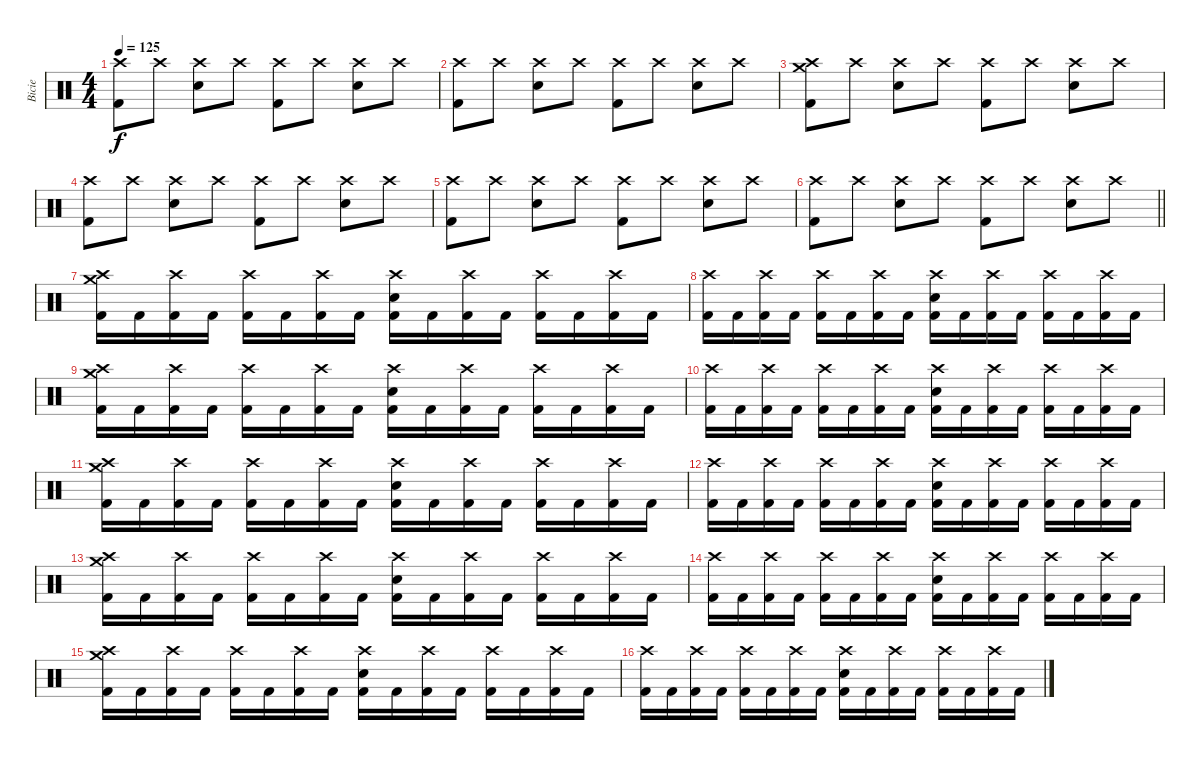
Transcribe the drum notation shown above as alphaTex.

\track ("Bicie" "Bicie") {instrument percussion}
\staff {score}
\articulation defaults
\ts (4 4)
\tempo 125
\clef neutral
\ks c
("Crash high (hit)" "Kick (hit) 2").8{dy f} "Crash high (hit)".8 ("Crash high (hit)" "Snare (hit) 2").8 "Crash high (hit)".8 ("Crash high (hit)" "Kick (hit) 2").8 "Crash high (hit)".8 ("Crash high (hit)" "Snare (hit) 2").8 "Crash high (hit)".8 |
("Crash high (hit)" "Kick (hit) 2").8 "Crash high (hit)".8 ("Crash high (hit)" "Snare (hit) 2").8 "Crash high (hit)".8 ("Crash high (hit)" "Kick (hit) 2").8 "Crash high (hit)".8 ("Crash high (hit)" "Snare (hit) 2").8 "Crash high (hit)".8 |
("Crash medium (hit)" "Crash high (hit)" "Kick (hit) 2").8 "Crash high (hit)".8 ("Crash high (hit)" "Snare (hit) 2").8 "Crash high (hit)".8 ("Crash high (hit)" "Kick (hit) 2").8 "Crash high (hit)".8 ("Crash high (hit)" "Snare (hit) 2").8 "Crash high (hit)".8 |
("Crash high (hit)" "Kick (hit) 2").8 "Crash high (hit)".8 ("Crash high (hit)" "Snare (hit) 2").8 "Crash high (hit)".8 ("Crash high (hit)" "Kick (hit) 2").8 "Crash high (hit)".8 ("Crash high (hit)" "Snare (hit) 2").8 "Crash high (hit)".8 |
("Crash high (hit)" "Kick (hit) 2").8 "Crash high (hit)".8 ("Crash high (hit)" "Snare (hit) 2").8 "Crash high (hit)".8 ("Crash high (hit)" "Kick (hit) 2").8 "Crash high (hit)".8 ("Crash high (hit)" "Snare (hit) 2").8 "Crash high (hit)".8 |
\barLineRight lightlight
("Crash high (hit)" "Kick (hit) 2").8 "Crash high (hit)".8 ("Crash high (hit)" "Snare (hit) 2").8 "Crash high (hit)".8 ("Crash high (hit)" "Kick (hit) 2").8 "Crash high (hit)".8 ("Crash high (hit)" "Snare (hit) 2").8 "Crash high (hit)".8 |
("Crash high (hit)" "Crash medium (hit)" "Kick (hit) 2").16 "Kick (hit) 2".16 ("Crash high (hit)" "Kick (hit) 2").16 "Kick (hit) 2".16 ("Crash high (hit)" "Kick (hit) 2").16 "Kick (hit) 2".16 ("Crash high (hit)" "Kick (hit) 2").16 "Kick (hit) 2".16 ("Crash high (hit)" "Snare (hit) 2" "Kick (hit) 2").16 "Kick (hit) 2".16 ("Crash high (hit)" "Kick (hit) 2").16 "Kick (hit) 2".16 ("Crash high (hit)" "Kick (hit) 2").16 "Kick (hit) 2".16 ("Crash high (hit)" "Kick (hit) 2").16 "Kick (hit) 2".16 |
("Crash high (hit)" "Kick (hit) 2").16 "Kick (hit) 2".16 ("Crash high (hit)" "Kick (hit) 2").16 "Kick (hit) 2".16 ("Crash high (hit)" "Kick (hit) 2").16 "Kick (hit) 2".16 ("Crash high (hit)" "Kick (hit) 2").16 "Kick (hit) 2".16 ("Crash high (hit)" "Snare (hit) 2" "Kick (hit) 2").16 "Kick (hit) 2".16 ("Crash high (hit)" "Kick (hit) 2").16 "Kick (hit) 2".16 ("Crash high (hit)" "Kick (hit) 2").16 "Kick (hit) 2".16 ("Crash high (hit)" "Kick (hit) 2").16 "Kick (hit) 2".16 |
("Crash high (hit)" "Crash medium (hit)" "Kick (hit) 2").16 "Kick (hit) 2".16 ("Crash high (hit)" "Kick (hit) 2").16 "Kick (hit) 2".16 ("Crash high (hit)" "Kick (hit) 2").16 "Kick (hit) 2".16 ("Crash high (hit)" "Kick (hit) 2").16 "Kick (hit) 2".16 ("Crash high (hit)" "Snare (hit) 2" "Kick (hit) 2").16 "Kick (hit) 2".16 ("Crash high (hit)" "Kick (hit) 2").16 "Kick (hit) 2".16 ("Crash high (hit)" "Kick (hit) 2").16 "Kick (hit) 2".16 ("Crash high (hit)" "Kick (hit) 2").16 "Kick (hit) 2".16 |
("Crash high (hit)" "Kick (hit) 2").16 "Kick (hit) 2".16 ("Crash high (hit)" "Kick (hit) 2").16 "Kick (hit) 2".16 ("Crash high (hit)" "Kick (hit) 2").16 "Kick (hit) 2".16 ("Crash high (hit)" "Kick (hit) 2").16 "Kick (hit) 2".16 ("Crash high (hit)" "Snare (hit) 2" "Kick (hit) 2").16 "Kick (hit) 2".16 ("Crash high (hit)" "Kick (hit) 2").16 "Kick (hit) 2".16 ("Crash high (hit)" "Kick (hit) 2").16 "Kick (hit) 2".16 ("Crash high (hit)" "Kick (hit) 2").16 "Kick (hit) 2".16 |
("Crash high (hit)" "Crash medium (hit)" "Kick (hit) 2").16 "Kick (hit) 2".16 ("Crash high (hit)" "Kick (hit) 2").16 "Kick (hit) 2".16 ("Crash high (hit)" "Kick (hit) 2").16 "Kick (hit) 2".16 ("Crash high (hit)" "Kick (hit) 2").16 "Kick (hit) 2".16 ("Crash high (hit)" "Snare (hit) 2" "Kick (hit) 2").16 "Kick (hit) 2".16 ("Crash high (hit)" "Kick (hit) 2").16 "Kick (hit) 2".16 ("Crash high (hit)" "Kick (hit) 2").16 "Kick (hit) 2".16 ("Crash high (hit)" "Kick (hit) 2").16 "Kick (hit) 2".16 |
("Crash high (hit)" "Kick (hit) 2").16 "Kick (hit) 2".16 ("Crash high (hit)" "Kick (hit) 2").16 "Kick (hit) 2".16 ("Crash high (hit)" "Kick (hit) 2").16 "Kick (hit) 2".16 ("Crash high (hit)" "Kick (hit) 2").16 "Kick (hit) 2".16 ("Crash high (hit)" "Snare (hit) 2" "Kick (hit) 2").16 "Kick (hit) 2".16 ("Crash high (hit)" "Kick (hit) 2").16 "Kick (hit) 2".16 ("Crash high (hit)" "Kick (hit) 2").16 "Kick (hit) 2".16 ("Crash high (hit)" "Kick (hit) 2").16 "Kick (hit) 2".16 |
("Crash high (hit)" "Crash medium (hit)" "Kick (hit) 2").16 "Kick (hit) 2".16 ("Crash high (hit)" "Kick (hit) 2").16 "Kick (hit) 2".16 ("Crash high (hit)" "Kick (hit) 2").16 "Kick (hit) 2".16 ("Crash high (hit)" "Kick (hit) 2").16 "Kick (hit) 2".16 ("Crash high (hit)" "Snare (hit) 2" "Kick (hit) 2").16 "Kick (hit) 2".16 ("Crash high (hit)" "Kick (hit) 2").16 "Kick (hit) 2".16 ("Crash high (hit)" "Kick (hit) 2").16 "Kick (hit) 2".16 ("Crash high (hit)" "Kick (hit) 2").16 "Kick (hit) 2".16 |
("Crash high (hit)" "Kick (hit) 2").16 "Kick (hit) 2".16 ("Crash high (hit)" "Kick (hit) 2").16 "Kick (hit) 2".16 ("Crash high (hit)" "Kick (hit) 2").16 "Kick (hit) 2".16 ("Crash high (hit)" "Kick (hit) 2").16 "Kick (hit) 2".16 ("Crash high (hit)" "Snare (hit) 2" "Kick (hit) 2").16 "Kick (hit) 2".16 ("Crash high (hit)" "Kick (hit) 2").16 "Kick (hit) 2".16 ("Crash high (hit)" "Kick (hit) 2").16 "Kick (hit) 2".16 ("Crash high (hit)" "Kick (hit) 2").16 "Kick (hit) 2".16 |
("Crash high (hit)" "Crash medium (hit)" "Kick (hit) 2").16 "Kick (hit) 2".16 ("Crash high (hit)" "Kick (hit) 2").16 "Kick (hit) 2".16 ("Crash high (hit)" "Kick (hit) 2").16 "Kick (hit) 2".16 ("Crash high (hit)" "Kick (hit) 2").16 "Kick (hit) 2".16 ("Crash high (hit)" "Snare (hit) 2" "Kick (hit) 2").16 "Kick (hit) 2".16 ("Crash high (hit)" "Kick (hit) 2").16 "Kick (hit) 2".16 ("Crash high (hit)" "Kick (hit) 2").16 "Kick (hit) 2".16 ("Crash high (hit)" "Kick (hit) 2").16 "Kick (hit) 2".16 |
("Crash high (hit)" "Kick (hit) 2").16 "Kick (hit) 2".16 ("Crash high (hit)" "Kick (hit) 2").16 "Kick (hit) 2".16 ("Crash high (hit)" "Kick (hit) 2").16 "Kick (hit) 2".16 ("Crash high (hit)" "Kick (hit) 2").16 "Kick (hit) 2".16 ("Crash high (hit)" "Snare (hit) 2" "Kick (hit) 2").16 "Kick (hit) 2".16 ("Crash high (hit)" "Kick (hit) 2").16 "Kick (hit) 2".16 ("Crash high (hit)" "Kick (hit) 2").16 "Kick (hit) 2".16 ("Crash high (hit)" "Kick (hit) 2").16 "Kick (hit) 2".16
